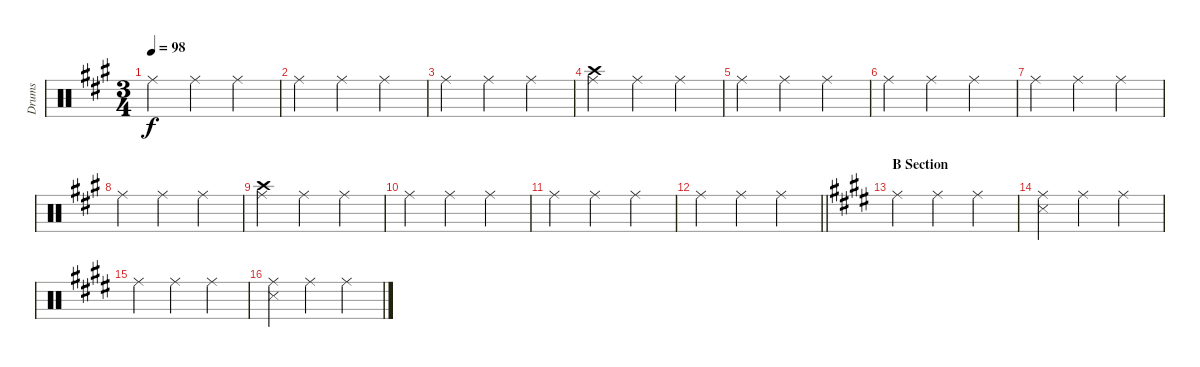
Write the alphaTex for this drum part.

\track ("Drums" "Drums") {instrument percussion}
\staff {score}
\articulation defaults
\ts (3 4)
\tempo 98
\clef neutral
\ks f#minor "Ride (middle)".4{dy f} "Ride (middle)".4 "Ride (middle)".4
|
"Ride (middle)".4 "Ride (middle)".4 "Ride (middle)".4 |
"Ride (middle)".4 "Ride (middle)".4 "Ride (middle)".4 |
("Crash high (hit)" "Ride (middle)").4 "Ride (middle)".4 "Ride (middle)".4 |
"Ride (middle)".4 "Ride (middle)".4 "Ride (middle)".4 |
"Ride (middle)".4 "Ride (middle)".4 "Ride (middle)".4 |
"Ride (middle)".4 "Ride (middle)".4 "Ride (middle)".4 |
"Ride (middle)".4 "Ride (middle)".4 "Ride (middle)".4 |
("Crash high (hit)" "Ride (middle)").4 "Ride (middle)".4 "Ride (middle)".4 |
"Ride (middle)".4 "Ride (middle)".4 "Ride (middle)".4 |
"Ride (middle)".4 "Ride (middle)".4 "Ride (middle)".4 |
\barLineRight lightlight "Ride (middle)".4 "Ride (middle)".4 "Ride (middle)".4
|
\section ("" "B Section")
\ks e "Ride (middle)".4 "Ride (middle)".4 "Ride (middle)".4
|
("Ride (middle)" "Snare (side stick) 3").4 "Ride (middle)".4 "Ride (middle)".4 |
"Ride (middle)".4 "Ride (middle)".4 "Ride (middle)".4 |
("Ride (middle)" "Snare (side stick) 3").4 "Ride (middle)".4 "Ride (middle)".4
